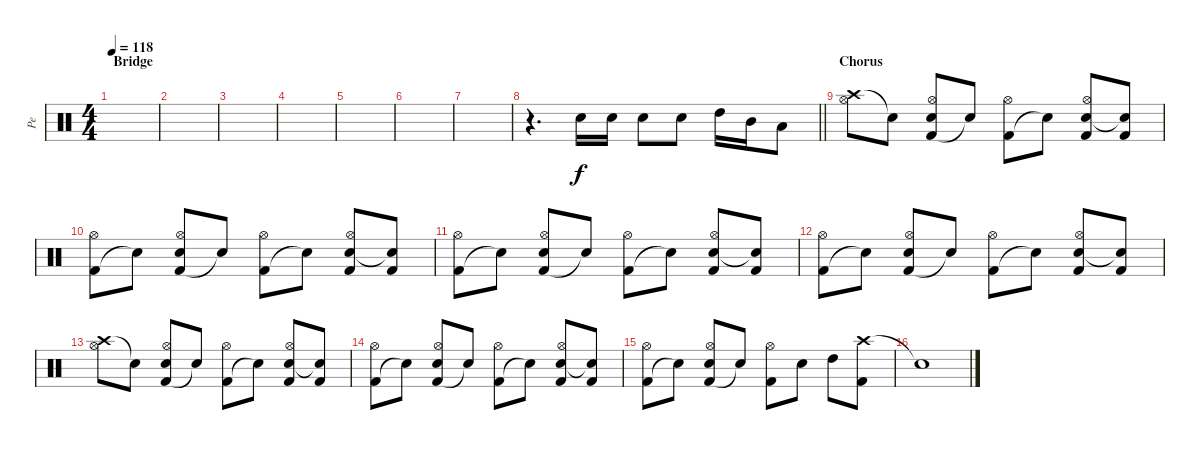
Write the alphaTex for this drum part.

\track ("Pe" "Pe") {instrument percussion}
\staff {score}
\articulation defaults
\ts (4 4)
\section ("" "Bridge")
\tempo 118
\clef neutral
\ks c
|
|
|
|
|
|
|
\barLineRight lightlight
r.4{d} "Electric Snare (hit)".16 "Electric Snare (hit)".16 "Electric Snare (hit)".8 "Electric Snare (hit)".8 "High Tom (hit)".16 "Mid Tom (hit)".16 "Low Tom (hit)".8 |
\section ("" "Chorus")
("Crash high (hit)" "Hi-Hat (open)").8 "Snare (hit)"{t}.8 ("Kick (hit) 2" "Electric Snare (hit)" "Hi-Hat (open)").8 "Snare (hit)"{t}.8 ("Kick (hit) 2" "Hi-Hat (open)").8 "Snare (hit)"{t}.8 ("Kick (hit) 2" "Electric Snare (hit)" "Hi-Hat (open)").8 ("Kick (hit) 2" "Snare (hit)"{t}).8 |
("Kick (hit) 2" "Hi-Hat (open)").8 "Snare (hit)"{t}.8 ("Kick (hit) 2" "Electric Snare (hit)" "Hi-Hat (open)").8 "Snare (hit)"{t}.8 ("Kick (hit) 2" "Hi-Hat (open)").8 "Snare (hit)"{t}.8 ("Kick (hit) 2" "Electric Snare (hit)" "Hi-Hat (open)").8 ("Kick (hit) 2" "Snare (hit)"{t}).8 |
("Kick (hit) 2" "Hi-Hat (open)").8 "Snare (hit)"{t}.8 ("Kick (hit) 2" "Electric Snare (hit)" "Hi-Hat (open)").8 "Snare (hit)"{t}.8 ("Kick (hit) 2" "Hi-Hat (open)").8 "Snare (hit)"{t}.8 ("Kick (hit) 2" "Electric Snare (hit)" "Hi-Hat (open)").8 ("Kick (hit) 2" "Snare (hit)"{t}).8 |
("Kick (hit) 2" "Hi-Hat (open)").8 "Snare (hit)"{t}.8 ("Kick (hit) 2" "Electric Snare (hit)" "Hi-Hat (open)").8 "Snare (hit)"{t}.8 ("Kick (hit) 2" "Hi-Hat (open)").8 "Snare (hit)"{t}.8 ("Kick (hit) 2" "Electric Snare (hit)" "Hi-Hat (open)").8 ("Kick (hit) 2" "Snare (hit)"{t}).8 |
("Crash high (hit)" "Hi-Hat (open)").8 "Snare (hit)"{t}.8 ("Kick (hit) 2" "Electric Snare (hit)" "Hi-Hat (open)").8 "Snare (hit)"{t}.8 ("Kick (hit) 2" "Hi-Hat (open)").8 "Snare (hit)"{t}.8 ("Kick (hit) 2" "Electric Snare (hit)" "Hi-Hat (open)").8 ("Kick (hit) 2" "Snare (hit)"{t}).8 |
("Kick (hit) 2" "Hi-Hat (open)").8 "Snare (hit)"{t}.8 ("Kick (hit) 2" "Electric Snare (hit)" "Hi-Hat (open)").8 "Snare (hit)"{t}.8 ("Kick (hit) 2" "Hi-Hat (open)").8 "Snare (hit)"{t}.8 ("Kick (hit) 2" "Electric Snare (hit)" "Hi-Hat (open)").8 ("Kick (hit) 2" "Snare (hit)"{t}).8 |
("Kick (hit) 2" "Hi-Hat (open)").8 "Snare (hit)"{t}.8 ("Kick (hit) 2" "Electric Snare (hit)" "Hi-Hat (open)").8 "Snare (hit)"{t}.8 ("Kick (hit) 2" "Hi-Hat (open)").8 "Electric Snare (hit)".8 "High Tom (hit)".8 ("Crash high (hit)" "Kick (hit) 2").8 |
"Snare (hit)"{t}.1
